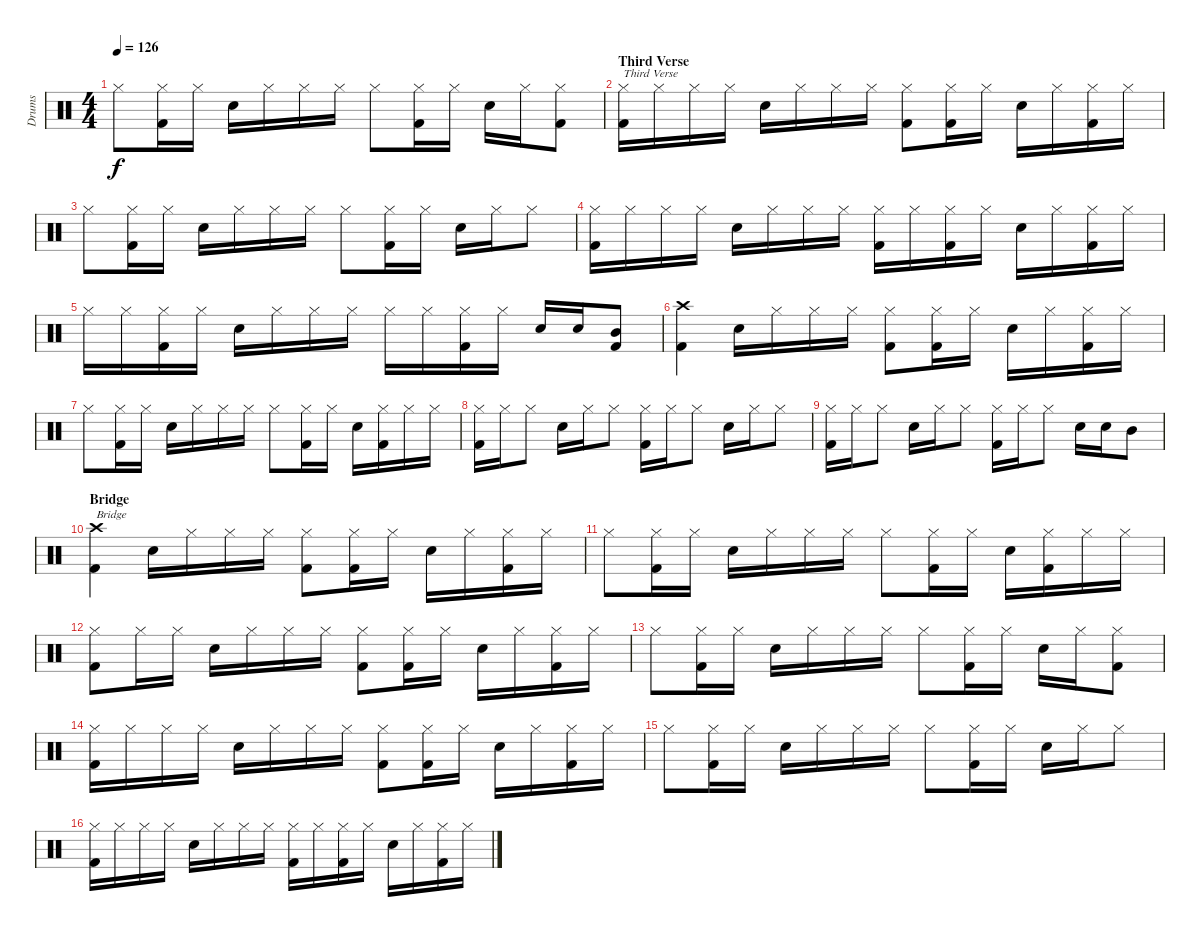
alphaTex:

\track ("Drums" "Drums") {instrument percussion}
\staff {score}
\articulation defaults
\ts (4 4)
\tempo 126
\clef neutral
\ks c "Hi-Hat (closed)".8{dy f}
("Hi-Hat (closed)" "Kick (hit) 2").16 "Hi-Hat (closed)".16 "Electric Snare (hit)".16 "Hi-Hat (closed)".16 "Hi-Hat (closed)".16 "Hi-Hat (closed)".16 "Hi-Hat (closed)".8 ("Hi-Hat (closed)" "Kick (hit) 2").16 "Hi-Hat (closed)".16 "Electric Snare (hit)".16 "Hi-Hat (closed)".16 ("Hi-Hat (closed)" "Kick (hit) 2").8 |
\section ("" "Third Verse")
("Hi-Hat (closed)" "Kick (hit) 2").16{txt "Third Verse"} "Hi-Hat (closed)".16 "Hi-Hat (closed)".16 "Hi-Hat (closed)".16 "Electric Snare (hit)".16 "Hi-Hat (closed)".16 "Hi-Hat (closed)".16 "Hi-Hat (closed)".16 ("Hi-Hat (closed)" "Kick (hit) 2").8 ("Hi-Hat (closed)" "Kick (hit) 2").16 "Hi-Hat (closed)".16 "Electric Snare (hit)".16 "Hi-Hat (closed)".16 ("Hi-Hat (closed)" "Kick (hit) 2").16 "Hi-Hat (closed)".16 |
"Hi-Hat (closed)".8 ("Hi-Hat (closed)" "Kick (hit) 2").16 "Hi-Hat (closed)".16 "Electric Snare (hit)".16 "Hi-Hat (closed)".16 "Hi-Hat (closed)".16 "Hi-Hat (closed)".16 "Hi-Hat (closed)".8 ("Hi-Hat (closed)" "Kick (hit) 2").16 "Hi-Hat (closed)".16 "Electric Snare (hit)".16 "Hi-Hat (closed)".16 "Hi-Hat (closed)".8 |
("Hi-Hat (closed)" "Kick (hit) 2").16 "Hi-Hat (closed)".16 "Hi-Hat (closed)".16 "Hi-Hat (closed)".16 "Electric Snare (hit)".16 "Hi-Hat (closed)".16 "Hi-Hat (closed)".16 "Hi-Hat (closed)".16 ("Hi-Hat (closed)" "Kick (hit) 2").16 "Hi-Hat (closed)".16 ("Hi-Hat (closed)" "Kick (hit) 2").16 "Hi-Hat (closed)".16 "Electric Snare (hit)".16 "Hi-Hat (closed)".16 ("Hi-Hat (closed)" "Kick (hit) 2").16 "Hi-Hat (closed)".16 |
"Hi-Hat (closed)".16 "Hi-Hat (closed)".16 ("Hi-Hat (closed)" "Kick (hit) 2").16 "Hi-Hat (closed)".16 "Electric Snare (hit)".16 "Hi-Hat (closed)".16 "Hi-Hat (closed)".16 "Hi-Hat (closed)".16 "Hi-Hat (closed)".16 "Hi-Hat (closed)".16 ("Hi-Hat (closed)" "Kick (hit) 2").16 "Hi-Hat (closed)".16 "Electric Snare (hit)".16 "Electric Snare (hit)".16 ("Mid Tom (hit)" "Kick (hit) 2").8 |
("Crash high (hit)" "Kick (hit) 2").4 "Electric Snare (hit)".16 "Hi-Hat (closed)".16 "Hi-Hat (closed)".16 "Hi-Hat (closed)".16 ("Hi-Hat (closed)" "Kick (hit) 2").8 ("Hi-Hat (closed)" "Kick (hit) 2").16 "Hi-Hat (closed)".16 "Electric Snare (hit)".16 "Hi-Hat (closed)".16 ("Hi-Hat (closed)" "Kick (hit) 2").16 "Hi-Hat (closed)".16 |
"Hi-Hat (closed)".8 ("Hi-Hat (closed)" "Kick (hit) 2").16 "Hi-Hat (closed)".16 "Electric Snare (hit)".16 "Hi-Hat (closed)".16 "Hi-Hat (closed)".16 "Hi-Hat (closed)".16 "Hi-Hat (closed)".8 ("Hi-Hat (closed)" "Kick (hit) 2").16 "Hi-Hat (closed)".16 "Electric Snare (hit)".16 ("Hi-Hat (closed)" "Kick (hit) 2").16 "Hi-Hat (closed)".16 "Hi-Hat (closed)".16 |
("Hi-Hat (closed)" "Kick (hit) 2").16 "Hi-Hat (closed)".16 "Hi-Hat (closed)".8 "Electric Snare (hit)".16 "Hi-Hat (closed)".16 "Hi-Hat (closed)".8 ("Hi-Hat (closed)" "Kick (hit) 2").16 "Hi-Hat (closed)".16 "Hi-Hat (closed)".8 "Electric Snare (hit)".16 "Hi-Hat (closed)".16 "Hi-Hat (closed)".8 |
("Hi-Hat (closed)" "Kick (hit) 2").16 "Hi-Hat (closed)".16 "Hi-Hat (closed)".8 "Electric Snare (hit)".16 "Hi-Hat (closed)".16 "Hi-Hat (closed)".8 ("Hi-Hat (closed)" "Kick (hit) 2").16 "Hi-Hat (closed)".16 "Hi-Hat (closed)".8 "Electric Snare (hit)".16 "Electric Snare (hit)".16 "Mid Tom (hit)".8 |
\section ("" "Bridge")
("Crash high (hit)" "Kick (hit) 2").4{txt "Bridge"} "Electric Snare (hit)".16 "Hi-Hat (closed)".16 "Hi-Hat (closed)".16 "Hi-Hat (closed)".16 ("Hi-Hat (closed)" "Kick (hit) 2").8 ("Hi-Hat (closed)" "Kick (hit) 2").16 "Hi-Hat (closed)".16 "Electric Snare (hit)".16 "Hi-Hat (closed)".16 ("Hi-Hat (closed)" "Kick (hit) 2").16 "Hi-Hat (closed)".16 |
"Hi-Hat (closed)".8 ("Hi-Hat (closed)" "Kick (hit) 2").16 "Hi-Hat (closed)".16 "Electric Snare (hit)".16 "Hi-Hat (closed)".16 "Hi-Hat (closed)".16 "Hi-Hat (closed)".16 "Hi-Hat (closed)".8 ("Hi-Hat (closed)" "Kick (hit) 2").16 "Hi-Hat (closed)".16 "Electric Snare (hit)".16 ("Hi-Hat (closed)" "Kick (hit) 2").16 "Hi-Hat (closed)".16 "Hi-Hat (closed)".16 |
("Hi-Hat (closed)" "Kick (hit) 2").8 "Hi-Hat (closed)".16 "Hi-Hat (closed)".16 "Electric Snare (hit)".16 "Hi-Hat (closed)".16 "Hi-Hat (closed)".16 "Hi-Hat (closed)".16 ("Hi-Hat (closed)" "Kick (hit) 2").8 ("Hi-Hat (closed)" "Kick (hit) 2").16 "Hi-Hat (closed)".16 "Electric Snare (hit)".16 "Hi-Hat (closed)".16 ("Hi-Hat (closed)" "Kick (hit) 2").16 "Hi-Hat (closed)".16 |
"Hi-Hat (closed)".8 ("Hi-Hat (closed)" "Kick (hit) 2").16 "Hi-Hat (closed)".16 "Electric Snare (hit)".16 "Hi-Hat (closed)".16 "Hi-Hat (closed)".16 "Hi-Hat (closed)".16 "Hi-Hat (closed)".8 ("Hi-Hat (closed)" "Kick (hit) 2").16 "Hi-Hat (closed)".16 "Electric Snare (hit)".16 "Hi-Hat (closed)".16 ("Hi-Hat (closed)" "Kick (hit) 2").8 |
("Hi-Hat (closed)" "Kick (hit) 2").16 "Hi-Hat (closed)".16 "Hi-Hat (closed)".16 "Hi-Hat (closed)".16 "Electric Snare (hit)".16 "Hi-Hat (closed)".16 "Hi-Hat (closed)".16 "Hi-Hat (closed)".16 ("Hi-Hat (closed)" "Kick (hit) 2").8 ("Hi-Hat (closed)" "Kick (hit) 2").16 "Hi-Hat (closed)".16 "Electric Snare (hit)".16 "Hi-Hat (closed)".16 ("Hi-Hat (closed)" "Kick (hit) 2").16 "Hi-Hat (closed)".16 |
"Hi-Hat (closed)".8 ("Hi-Hat (closed)" "Kick (hit) 2").16 "Hi-Hat (closed)".16 "Electric Snare (hit)".16 "Hi-Hat (closed)".16 "Hi-Hat (closed)".16 "Hi-Hat (closed)".16 "Hi-Hat (closed)".8 ("Hi-Hat (closed)" "Kick (hit) 2").16 "Hi-Hat (closed)".16 "Electric Snare (hit)".16 "Hi-Hat (closed)".16 "Hi-Hat (closed)".8 |
("Hi-Hat (closed)" "Kick (hit) 2").16 "Hi-Hat (closed)".16 "Hi-Hat (closed)".16 "Hi-Hat (closed)".16 "Electric Snare (hit)".16 "Hi-Hat (closed)".16 "Hi-Hat (closed)".16 "Hi-Hat (closed)".16 ("Hi-Hat (closed)" "Kick (hit) 2").16 "Hi-Hat (closed)".16 ("Hi-Hat (closed)" "Kick (hit) 2").16 "Hi-Hat (closed)".16 "Electric Snare (hit)".16 "Hi-Hat (closed)".16 ("Hi-Hat (closed)" "Kick (hit) 2").16 "Hi-Hat (closed)".16
